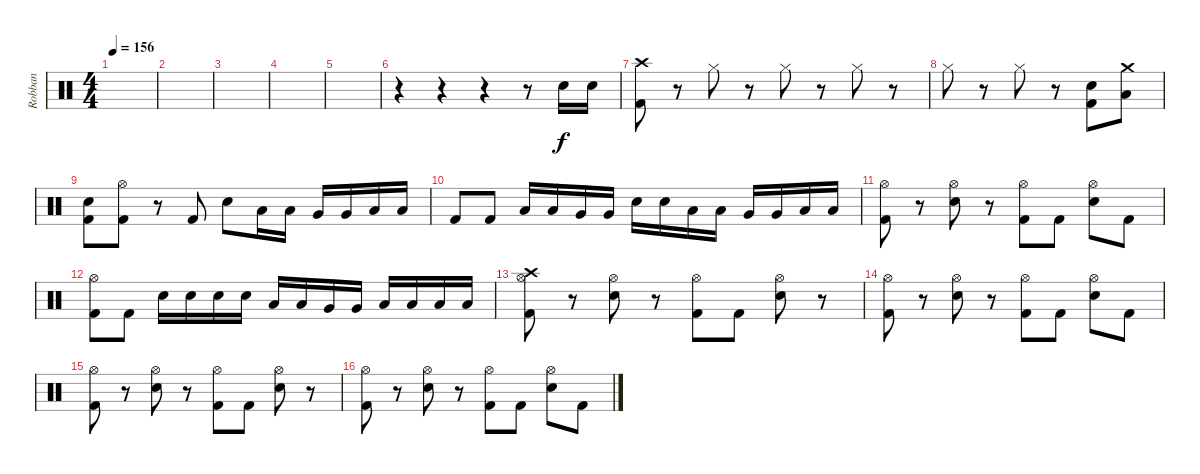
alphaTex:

\track ("Robban" "Robban") {instrument percussion}
\staff {score}
\articulation defaults
\ts (4 4)
\tempo 156
\clef neutral
\ks c
|
|
|
|
|
r.4 r.4 r.4 r.8 "Electric Snare (hit)".16 "Electric Snare (hit)".16 |
("Crash high (hit)" "Kick (hit) 2").8 r.8 "Hi-Hat (closed)".8 r.8 "Hi-Hat (closed)".8 r.8 "Hi-Hat (closed)".8 r.8 |
"Hi-Hat (closed)".8 r.8 "Hi-Hat (closed)".8 r.8 ("Electric Snare (hit)" "Kick (hit) 2").8 ("Crash medium (hit)" "Low Tom (hit)").8 |
("Electric Snare (hit)" "Kick (hit) 2").8 ("Hi-Hat (open)" "Kick (hit) 2").8 r.8 "Kick (hit) 2".8 "Electric Snare (hit)".8 "Low Tom (hit)".16 "Low Tom (hit)".16 "Very Low Tom (hit)".16 "Very Low Tom (hit)".16 "Low Floor Tom (hit)".16 "Low Floor Tom (hit)".16 |
"Kick (hit) 2".8 "Kick (hit) 2".8 "Low Floor Tom (hit)".16 "Low Floor Tom (hit)".16 "Very Low Tom (hit)".16 "Very Low Tom (hit)".16 "Electric Snare (hit)".16 "Electric Snare (hit)".16 "Low Tom (hit)".16 "Low Tom (hit)".16 "Very Low Tom (hit)".16 "Very Low Tom (hit)".16 "Low Floor Tom (hit)".16 "Low Floor Tom (hit)".16 |
("Hi-Hat (open)" "Kick (hit) 2").8 r.8 ("Hi-Hat (open)" "Electric Snare (hit)").8 r.8 ("Hi-Hat (open)" "Kick (hit) 2").8 "Kick (hit) 2".8 ("Hi-Hat (open)" "Electric Snare (hit)").8 "Kick (hit) 2".8 |
("Hi-Hat (open)" "Kick (hit) 2").8 "Kick (hit) 2".8 "Electric Snare (hit)".16 "Electric Snare (hit)".16 "Electric Snare (hit)".16 "Electric Snare (hit)".16 "Low Tom (hit)".16 "Low Tom (hit)".16 "Very Low Tom (hit)".16 "Very Low Tom (hit)".16 "Low Floor Tom (hit)".16 "Low Floor Tom (hit)".16 "Low Floor Tom (hit)".16 "Low Floor Tom (hit)".16 |
("Crash high (hit)" "Hi-Hat (open)" "Kick (hit) 2").8 r.8 ("Hi-Hat (open)" "Electric Snare (hit)").8 r.8 ("Hi-Hat (open)" "Kick (hit) 2").8 "Kick (hit) 2".8 ("Hi-Hat (open)" "Electric Snare (hit)").8 r.8 |
("Hi-Hat (open)" "Kick (hit) 2").8 r.8 ("Hi-Hat (open)" "Electric Snare (hit)").8 r.8 ("Hi-Hat (open)" "Kick (hit) 2").8 "Kick (hit) 2".8 ("Hi-Hat (open)" "Electric Snare (hit)").8 "Kick (hit) 2".8 |
("Hi-Hat (open)" "Kick (hit) 2").8 r.8 ("Hi-Hat (open)" "Electric Snare (hit)").8 r.8 ("Hi-Hat (open)" "Kick (hit) 2").8 "Kick (hit) 2".8 ("Hi-Hat (open)" "Electric Snare (hit)").8 r.8 |
("Hi-Hat (open)" "Kick (hit) 2").8 r.8 ("Hi-Hat (open)" "Electric Snare (hit)").8 r.8 ("Hi-Hat (open)" "Kick (hit) 2").8 "Kick (hit) 2".8 ("Hi-Hat (open)" "Electric Snare (hit)").8 "Kick (hit) 2".8
